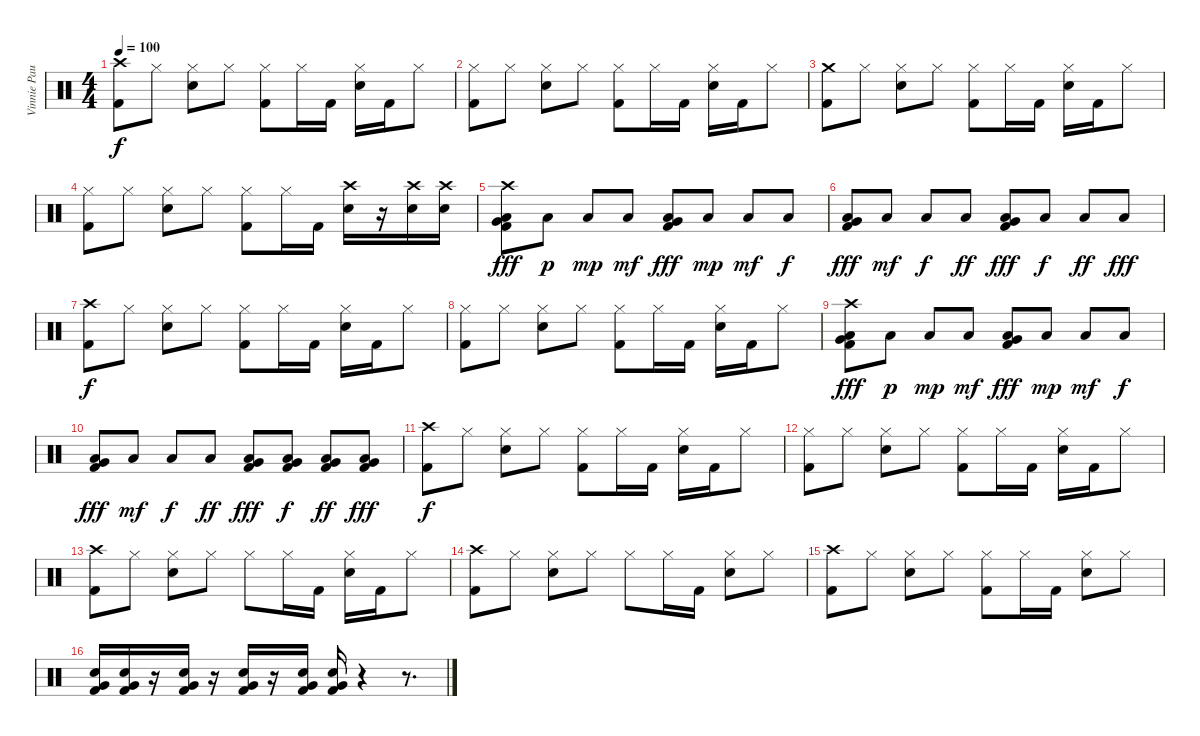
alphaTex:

\track ("Vinnie Paul # Drums" "Vinnie Pau") {instrument percussion}
\staff {score}
\articulation defaults
\ts (4 4)
\tempo 100
\clef neutral
\ks c
("Crash high (hit)" "Kick (hit) 2").8{dy f} "Hi-Hat (closed)".8 ("Hi-Hat (closed)" "Electric Snare (hit)").8 "Hi-Hat (closed)".8 ("Hi-Hat (closed)" "Kick (hit) 2").8 "Hi-Hat (closed)".16 "Kick (hit) 2".16 ("Hi-Hat (closed)" "Electric Snare (hit)").16 "Kick (hit) 2".16 "Hi-Hat (closed)".8 |
("Hi-Hat (closed)" "Kick (hit) 2").8 "Hi-Hat (closed)".8 ("Hi-Hat (closed)" "Electric Snare (hit)").8 "Hi-Hat (closed)".8 ("Hi-Hat (closed)" "Kick (hit) 2").8 "Hi-Hat (closed)".16 "Kick (hit) 2".16 ("Hi-Hat (closed)" "Electric Snare (hit)").16 "Kick (hit) 2".16 "Hi-Hat (closed)".8 |
("Crash medium (hit)" "Kick (hit) 2").8 "Hi-Hat (closed)".8 ("Hi-Hat (closed)" "Electric Snare (hit)").8 "Hi-Hat (closed)".8 ("Hi-Hat (closed)" "Kick (hit) 2").8 "Hi-Hat (closed)".16 "Kick (hit) 2".16 ("Hi-Hat (closed)" "Electric Snare (hit)").16 "Kick (hit) 2".16 "Hi-Hat (closed)".8 |
("Hi-Hat (closed)" "Kick (hit) 2").8 "Hi-Hat (closed)".8 ("Hi-Hat (closed)" "Electric Snare (hit)").8 "Hi-Hat (closed)".8 ("Hi-Hat (closed)" "Kick (hit) 2").8 "Hi-Hat (closed)".16 "Kick (hit) 2".16 ("Crash high (hit)" "Electric Snare (hit)").16 r.16 ("Crash high (hit)" "Electric Snare (hit)").16 ("Crash high (hit)" "Electric Snare (hit)").16 |
("Crash high (hit)" "Very Low Tom (hit)" "Low Floor Tom (hit)" "Kick (hit) 2").8{dy fff} "Low Floor Tom (hit)".8{dy p} "Low Floor Tom (hit)".8{dy mp} "Low Floor Tom (hit)".8{dy mf} ("Very Low Tom (hit)" "Low Floor Tom (hit)" "Kick (hit) 2").8{dy fff} "Low Floor Tom (hit)".8{dy mp} "Low Floor Tom (hit)".8{dy mf} "Low Floor Tom (hit)".8{dy f} |
("Very Low Tom (hit)" "Low Floor Tom (hit)" "Kick (hit) 2").8{dy fff} "Low Floor Tom (hit)".8{dy mf} "Low Floor Tom (hit)".8{dy f} "Low Floor Tom (hit)".8{dy ff} ("Very Low Tom (hit)" "Low Floor Tom (hit)" "Kick (hit) 2").8{dy fff} "Low Floor Tom (hit)".8{dy f} "Low Floor Tom (hit)".8{dy ff} "Low Floor Tom (hit)".8{dy fff} |
("Crash high (hit)" "Kick (hit) 2").8{dy f} "Hi-Hat (closed)".8 ("Hi-Hat (closed)" "Electric Snare (hit)").8 "Hi-Hat (closed)".8 ("Hi-Hat (closed)" "Kick (hit) 2").8 "Hi-Hat (closed)".16 "Kick (hit) 2".16 ("Hi-Hat (closed)" "Electric Snare (hit)").16 "Kick (hit) 2".16 "Hi-Hat (closed)".8 |
("Hi-Hat (closed)" "Kick (hit) 2").8 "Hi-Hat (closed)".8 ("Hi-Hat (closed)" "Electric Snare (hit)").8 "Hi-Hat (closed)".8 ("Hi-Hat (closed)" "Kick (hit) 2").8 "Hi-Hat (closed)".16 "Kick (hit) 2".16 ("Hi-Hat (closed)" "Electric Snare (hit)").16 "Kick (hit) 2".16 "Hi-Hat (closed)".8 |
("Crash high (hit)" "Very Low Tom (hit)" "Low Floor Tom (hit)" "Kick (hit) 2").8{dy fff} "Low Floor Tom (hit)".8{dy p} "Low Floor Tom (hit)".8{dy mp} "Low Floor Tom (hit)".8{dy mf} ("Very Low Tom (hit)" "Low Floor Tom (hit)" "Kick (hit) 2").8{dy fff} "Low Floor Tom (hit)".8{dy mp} "Low Floor Tom (hit)".8{dy mf} "Low Floor Tom (hit)".8{dy f} |
("Very Low Tom (hit)" "Low Floor Tom (hit)" "Kick (hit) 2").8{dy fff} "Low Floor Tom (hit)".8{dy mf} "Low Floor Tom (hit)".8{dy f} "Low Floor Tom (hit)".8{dy ff} ("Very Low Tom (hit)" "Low Floor Tom (hit)" "Kick (hit) 2").8{dy fff} ("Very Low Tom (hit)" "Low Floor Tom (hit)" "Kick (hit) 2").8{dy f} ("Very Low Tom (hit)" "Low Floor Tom (hit)" "Kick (hit) 2").8{dy ff} ("Very Low Tom (hit)" "Low Floor Tom (hit)" "Kick (hit) 2").8{dy fff} |
("Crash high (hit)" "Kick (hit) 2").8{dy f} "Hi-Hat (closed)".8 ("Hi-Hat (closed)" "Electric Snare (hit)").8 "Hi-Hat (closed)".8 ("Hi-Hat (closed)" "Kick (hit) 2").8 "Hi-Hat (closed)".16 "Kick (hit) 2".16 ("Hi-Hat (closed)" "Electric Snare (hit)").16 "Kick (hit) 2".16 "Hi-Hat (closed)".8 |
("Hi-Hat (closed)" "Kick (hit) 2").8 "Hi-Hat (closed)".8 ("Hi-Hat (closed)" "Electric Snare (hit)").8 "Hi-Hat (closed)".8 ("Hi-Hat (closed)" "Kick (hit) 2").8 "Hi-Hat (closed)".16 "Kick (hit) 2".16 ("Hi-Hat (closed)" "Electric Snare (hit)").16 "Kick (hit) 2".16 "Hi-Hat (closed)".8 |
("Crash high (hit)" "Kick (hit) 2").8 "Hi-Hat (closed)".8 ("Hi-Hat (closed)" "Electric Snare (hit)").8 "Hi-Hat (closed)".8 "Hi-Hat (closed)".8 "Hi-Hat (closed)".16 "Kick (hit) 2".16 ("Hi-Hat (closed)" "Electric Snare (hit)").16 "Kick (hit) 2".16 "Hi-Hat (closed)".8 |
("Crash high (hit)" "Kick (hit) 2").8 "Hi-Hat (closed)".8 ("Hi-Hat (closed)" "Electric Snare (hit)").8 "Hi-Hat (closed)".8 "Hi-Hat (closed)".8 "Hi-Hat (closed)".16 "Kick (hit) 2".16 ("Hi-Hat (closed)" "Electric Snare (hit)").8 "Hi-Hat (closed)".8 |
("Crash high (hit)" "Kick (hit) 2").8 "Hi-Hat (closed)".8 ("Hi-Hat (closed)" "Electric Snare (hit)").8 "Hi-Hat (closed)".8 ("Hi-Hat (closed)" "Kick (hit) 2").8 "Hi-Hat (closed)".16 "Kick (hit) 2".16 ("Hi-Hat (closed)" "Electric Snare (hit)").8 "Hi-Hat (closed)".8 |
("Very Low Tom (hit)" "Electric Snare (hit)" "Kick (hit) 2").16 ("Very Low Tom (hit)" "Electric Snare (hit)" "Kick (hit) 2").16 r.16 ("Very Low Tom (hit)" "Electric Snare (hit)" "Kick (hit) 2").16 r.16 ("Very Low Tom (hit)" "Electric Snare (hit)" "Kick (hit) 2").16 r.16 ("Very Low Tom (hit)" "Electric Snare (hit)" "Kick (hit) 2").16 ("Very Low Tom (hit)" "Electric Snare (hit)" "Kick (hit) 2").16 r.4 r.8{d}
